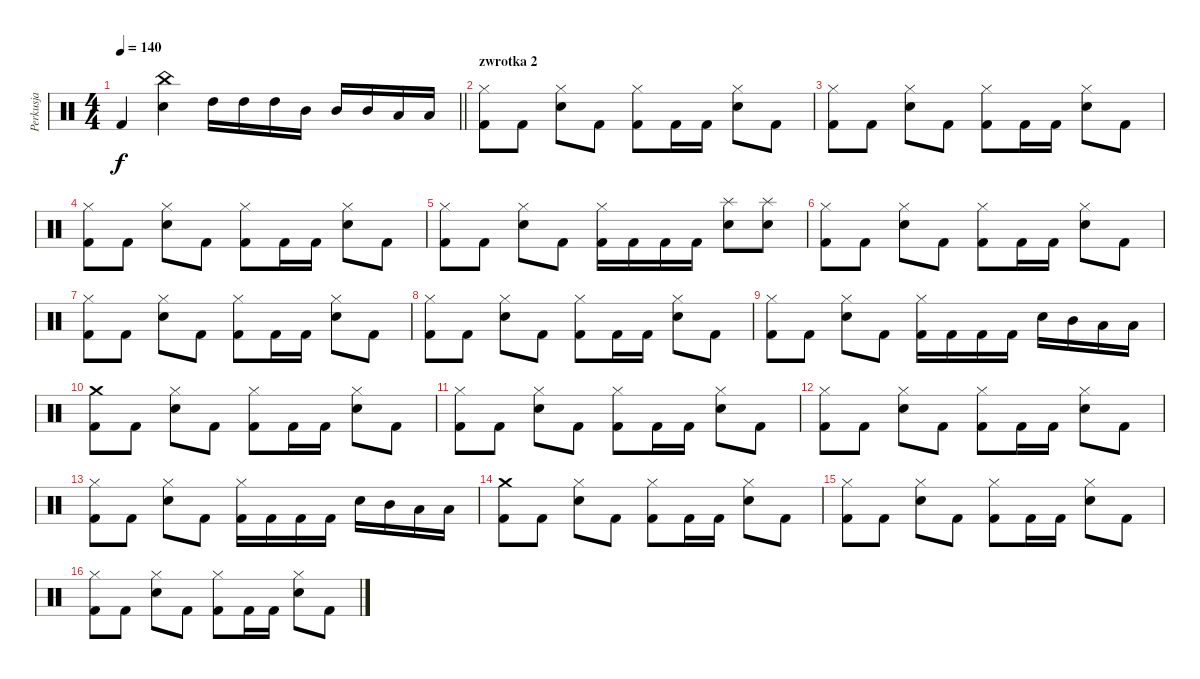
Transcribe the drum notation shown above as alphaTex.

\track ("Perkusja" "Perkusja") {instrument percussion}
\staff {score}
\articulation defaults
\ts (4 4)
\tempo 140
\clef neutral
\barLineRight lightlight
\ks c "Kick (hit) 2".4{dy f}
("Snare (hit) 2" "China (hit)").4 "High Tom (hit)".16 "High Tom (hit)".16 "High Tom (hit)".16 "Mid Tom (hit)".16 "Mid Tom (hit)".16 "Mid Tom (hit)".16 "Low Tom (hit)".16 "Low Tom (hit)".16 |
\section ("" "zwrotka 2")
("Hi-Hat (closed)" "Kick (hit) 2").8 "Kick (hit) 2".8 ("Hi-Hat (closed)" "Snare (hit) 2").8 "Kick (hit) 2".8 ("Hi-Hat (closed)" "Kick (hit) 2").8 "Kick (hit) 2".16 "Kick (hit) 2".16 ("Hi-Hat (closed)" "Snare (hit) 2").8 "Kick (hit) 2".8 |
("Hi-Hat (closed)" "Kick (hit) 2").8 "Kick (hit) 2".8 ("Hi-Hat (closed)" "Snare (hit) 2").8 "Kick (hit) 2".8 ("Hi-Hat (closed)" "Kick (hit) 2").8 "Kick (hit) 2".16 "Kick (hit) 2".16 ("Hi-Hat (closed)" "Snare (hit) 2").8 "Kick (hit) 2".8 |
("Hi-Hat (closed)" "Kick (hit) 2").8 "Kick (hit) 2".8 ("Hi-Hat (closed)" "Snare (hit) 2").8 "Kick (hit) 2".8 ("Hi-Hat (closed)" "Kick (hit) 2").8 "Kick (hit) 2".16 "Kick (hit) 2".16 ("Hi-Hat (closed)" "Snare (hit) 2").8 "Kick (hit) 2".8 |
("Hi-Hat (closed)" "Kick (hit) 2").8 "Kick (hit) 2".8 ("Hi-Hat (closed)" "Snare (hit) 2").8 "Kick (hit) 2".8 ("Hi-Hat (closed)" "Kick (hit) 2").16 "Kick (hit) 2".16 "Kick (hit) 2".16 "Kick (hit) 2".16 ("Splash (hit)" "Snare (hit) 2").8 ("Splash (hit)" "Snare (hit) 2").8 |
("Hi-Hat (closed)" "Kick (hit) 2").8 "Kick (hit) 2".8 ("Hi-Hat (closed)" "Snare (hit) 2").8 "Kick (hit) 2".8 ("Hi-Hat (closed)" "Kick (hit) 2").8 "Kick (hit) 2".16 "Kick (hit) 2".16 ("Hi-Hat (closed)" "Snare (hit) 2").8 "Kick (hit) 2".8 |
("Hi-Hat (closed)" "Kick (hit) 2").8 "Kick (hit) 2".8 ("Hi-Hat (closed)" "Snare (hit) 2").8 "Kick (hit) 2".8 ("Hi-Hat (closed)" "Kick (hit) 2").8 "Kick (hit) 2".16 "Kick (hit) 2".16 ("Hi-Hat (closed)" "Snare (hit) 2").8 "Kick (hit) 2".8 |
("Hi-Hat (closed)" "Kick (hit) 2").8 "Kick (hit) 2".8 ("Hi-Hat (closed)" "Snare (hit) 2").8 "Kick (hit) 2".8 ("Hi-Hat (closed)" "Kick (hit) 2").8 "Kick (hit) 2".16 "Kick (hit) 2".16 ("Hi-Hat (closed)" "Snare (hit) 2").8 "Kick (hit) 2".8 |
("Hi-Hat (closed)" "Kick (hit) 2").8 "Kick (hit) 2".8 ("Hi-Hat (closed)" "Snare (hit) 2").8 "Kick (hit) 2".8 ("Hi-Hat (closed)" "Kick (hit) 2").16 "Kick (hit) 2".16 "Kick (hit) 2".16 "Kick (hit) 2".16 "Snare (hit) 2".16 "Mid Tom (hit)".16 "Low Tom (hit)".16 "Low Tom (hit)".16 |
("Crash medium (hit)" "Kick (hit) 2").8 "Kick (hit) 2".8 ("Hi-Hat (closed)" "Snare (hit) 2").8 "Kick (hit) 2".8 ("Hi-Hat (closed)" "Kick (hit) 2").8 "Kick (hit) 2".16 "Kick (hit) 2".16 ("Hi-Hat (closed)" "Snare (hit) 2").8 "Kick (hit) 2".8 |
("Hi-Hat (closed)" "Kick (hit) 2").8 "Kick (hit) 2".8 ("Hi-Hat (closed)" "Snare (hit) 2").8 "Kick (hit) 2".8 ("Hi-Hat (closed)" "Kick (hit) 2").8 "Kick (hit) 2".16 "Kick (hit) 2".16 ("Hi-Hat (closed)" "Snare (hit) 2").8 "Kick (hit) 2".8 |
("Hi-Hat (closed)" "Kick (hit) 2").8 "Kick (hit) 2".8 ("Hi-Hat (closed)" "Snare (hit) 2").8 "Kick (hit) 2".8 ("Hi-Hat (closed)" "Kick (hit) 2").8 "Kick (hit) 2".16 "Kick (hit) 2".16 ("Hi-Hat (closed)" "Snare (hit) 2").8 "Kick (hit) 2".8 |
("Hi-Hat (closed)" "Kick (hit) 2").8 "Kick (hit) 2".8 ("Hi-Hat (closed)" "Snare (hit) 2").8 "Kick (hit) 2".8 ("Hi-Hat (closed)" "Kick (hit) 2").16 "Kick (hit) 2".16 "Kick (hit) 2".16 "Kick (hit) 2".16 "Snare (hit) 2".16 "Mid Tom (hit)".16 "Low Tom (hit)".16 "Low Tom (hit)".16 |
("Crash medium (hit)" "Kick (hit) 2").8 "Kick (hit) 2".8 ("Hi-Hat (closed)" "Snare (hit) 2").8 "Kick (hit) 2".8 ("Hi-Hat (closed)" "Kick (hit) 2").8 "Kick (hit) 2".16 "Kick (hit) 2".16 ("Hi-Hat (closed)" "Snare (hit) 2").8 "Kick (hit) 2".8 |
("Hi-Hat (closed)" "Kick (hit) 2").8 "Kick (hit) 2".8 ("Hi-Hat (closed)" "Snare (hit) 2").8 "Kick (hit) 2".8 ("Hi-Hat (closed)" "Kick (hit) 2").8 "Kick (hit) 2".16 "Kick (hit) 2".16 ("Hi-Hat (closed)" "Snare (hit) 2").8 "Kick (hit) 2".8 |
("Hi-Hat (closed)" "Kick (hit) 2").8 "Kick (hit) 2".8 ("Hi-Hat (closed)" "Snare (hit) 2").8 "Kick (hit) 2".8 ("Hi-Hat (closed)" "Kick (hit) 2").8 "Kick (hit) 2".16 "Kick (hit) 2".16 ("Hi-Hat (closed)" "Snare (hit) 2").8 "Kick (hit) 2".8
